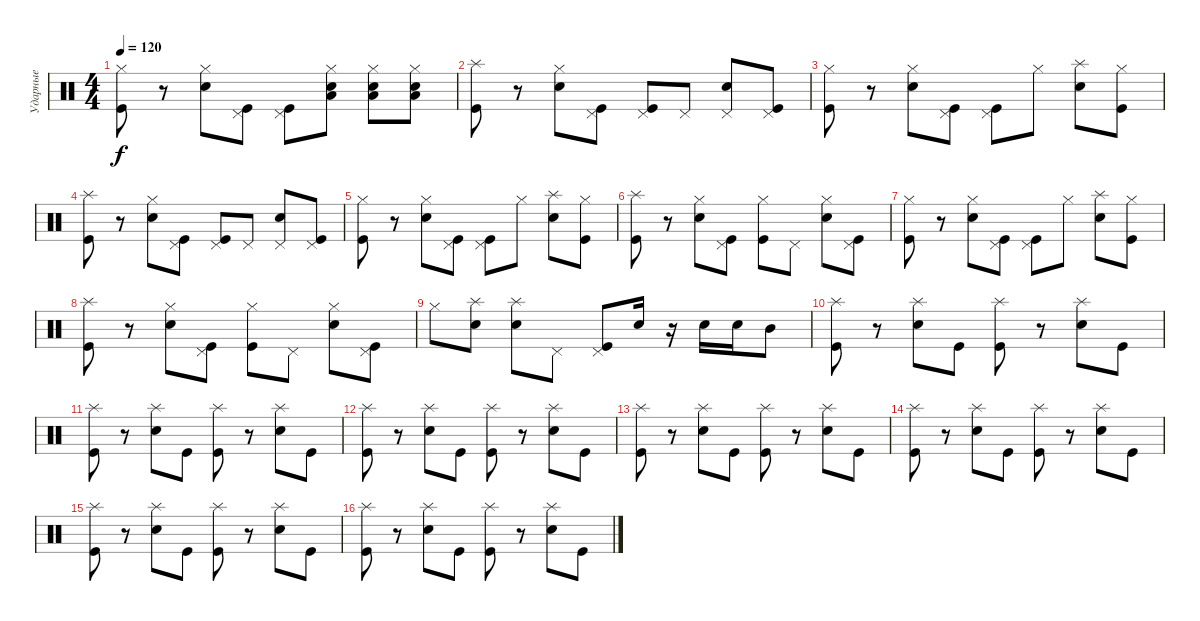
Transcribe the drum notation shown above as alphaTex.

\track ("Ударные" "Ударные") {instrument percussion}
\staff {score}
\articulation defaults
\ts (4 4)
\tempo 120
\clef neutral
\ks c
("Hi-Hat (closed)" "Kick (hit)").8{dy f} r.8 ("Hi-Hat (closed)" "Snare (hit) 2").8 ("Pedal Hi-Hat (hit)" "Kick (hit)").8 ("Pedal Hi-Hat (hit)" "Kick (hit)").8 ("Hi-Hat (closed)" "Snare (hit) 2" "Low Tom (hit)").8 ("Hi-Hat (closed)" "Snare (hit) 2" "Low Tom (hit)").8 ("Hi-Hat (closed)" "Snare (hit) 2" "Low Tom (hit)").8 |
("Splash (hit)" "Kick (hit)").8 r.8 ("Hi-Hat (closed)" "Snare (hit) 2").8 ("Pedal Hi-Hat (hit)" "Kick (hit)").8 ("Pedal Hi-Hat (hit)" "Kick (hit)").8 "Pedal Hi-Hat (hit)".8 ("Pedal Hi-Hat (hit)" "Snare (hit) 2").8 ("Pedal Hi-Hat (hit)" "Kick (hit)").8 |
("Hi-Hat (closed)" "Kick (hit)").8 r.8 ("Hi-Hat (closed)" "Snare (hit) 2").8 ("Pedal Hi-Hat (hit)" "Kick (hit)").8 ("Pedal Hi-Hat (hit)" "Kick (hit)").8 "Hi-Hat (closed)".8 ("Splash (hit)" "Snare (hit) 2").8 ("Hi-Hat (closed)" "Kick (hit)").8 |
("Splash (hit)" "Kick (hit)").8 r.8 ("Hi-Hat (closed)" "Snare (hit) 2").8 ("Pedal Hi-Hat (hit)" "Kick (hit)").8 ("Pedal Hi-Hat (hit)" "Kick (hit)").8 "Pedal Hi-Hat (hit)".8 ("Pedal Hi-Hat (hit)" "Snare (hit) 2").8 ("Pedal Hi-Hat (hit)" "Kick (hit)").8 |
("Hi-Hat (closed)" "Kick (hit)").8 r.8 ("Hi-Hat (closed)" "Snare (hit) 2").8 ("Pedal Hi-Hat (hit)" "Kick (hit)").8 ("Pedal Hi-Hat (hit)" "Kick (hit)").8 "Hi-Hat (closed)".8 ("Splash (hit)" "Snare (hit) 2").8 ("Hi-Hat (closed)" "Kick (hit)").8 |
("Splash (hit)" "Kick (hit)").8 r.8 ("Hi-Hat (closed)" "Snare (hit) 2").8 ("Pedal Hi-Hat (hit)" "Kick (hit)").8 ("Hi-Hat (closed)" "Kick (hit)").8 "Pedal Hi-Hat (hit)".8 ("Hi-Hat (closed)" "Snare (hit) 2").8 ("Pedal Hi-Hat (hit)" "Kick (hit)").8 |
("Hi-Hat (closed)" "Kick (hit)").8 r.8 ("Hi-Hat (closed)" "Snare (hit) 2").8 ("Pedal Hi-Hat (hit)" "Kick (hit)").8 ("Pedal Hi-Hat (hit)" "Kick (hit)").8 "Hi-Hat (closed)".8 ("Splash (hit)" "Snare (hit) 2").8 ("Hi-Hat (closed)" "Kick (hit)").8 |
("Splash (hit)" "Kick (hit)").8 r.8 ("Hi-Hat (closed)" "Snare (hit) 2").8 ("Pedal Hi-Hat (hit)" "Kick (hit)").8 ("Hi-Hat (closed)" "Kick (hit)").8 "Pedal Hi-Hat (hit)".8 ("Hi-Hat (closed)" "Snare (hit) 2").8 ("Pedal Hi-Hat (hit)" "Kick (hit)").8 |
"Hi-Hat (closed)".8 ("Splash (hit)" "Snare (hit) 2").8 ("Splash (hit)" "Snare (hit) 2").8 "Pedal Hi-Hat (hit)".8 ("Pedal Hi-Hat (hit)" "Kick (hit)").8 "Snare (hit) 2".16 r.16 "Snare (hit) 2".16 "Snare (hit) 2".16 "Mid Tom (hit)".8 |
("Splash (hit)" "Kick (hit)").8 r.8 ("Splash (hit)" "Snare (hit) 2").8 "Kick (hit)".8 ("Splash (hit)" "Kick (hit)").8 r.8 ("Splash (hit)" "Snare (hit) 2").8 "Kick (hit)".8 |
("Splash (hit)" "Kick (hit)").8 r.8 ("Splash (hit)" "Snare (hit) 2").8 "Kick (hit)".8 ("Splash (hit)" "Kick (hit)").8 r.8 ("Splash (hit)" "Snare (hit) 2").8 "Kick (hit)".8 |
("Splash (hit)" "Kick (hit)").8 r.8 ("Splash (hit)" "Snare (hit) 2").8 "Kick (hit)".8 ("Splash (hit)" "Kick (hit)").8 r.8 ("Splash (hit)" "Snare (hit) 2").8 "Kick (hit)".8 |
("Splash (hit)" "Kick (hit)").8 r.8 ("Splash (hit)" "Snare (hit) 2").8 "Kick (hit)".8 ("Splash (hit)" "Kick (hit)").8 r.8 ("Splash (hit)" "Snare (hit) 2").8 "Kick (hit)".8 |
("Splash (hit)" "Kick (hit)").8 r.8 ("Splash (hit)" "Snare (hit) 2").8 "Kick (hit)".8 ("Splash (hit)" "Kick (hit)").8 r.8 ("Splash (hit)" "Snare (hit) 2").8 "Kick (hit)".8 |
("Splash (hit)" "Kick (hit)").8 r.8 ("Splash (hit)" "Snare (hit) 2").8 "Kick (hit)".8 ("Splash (hit)" "Kick (hit)").8 r.8 ("Splash (hit)" "Snare (hit) 2").8 "Kick (hit)".8 |
("Splash (hit)" "Kick (hit)").8 r.8 ("Splash (hit)" "Snare (hit) 2").8 "Kick (hit)".8 ("Splash (hit)" "Kick (hit)").8 r.8 ("Splash (hit)" "Snare (hit) 2").8 "Kick (hit)".8
